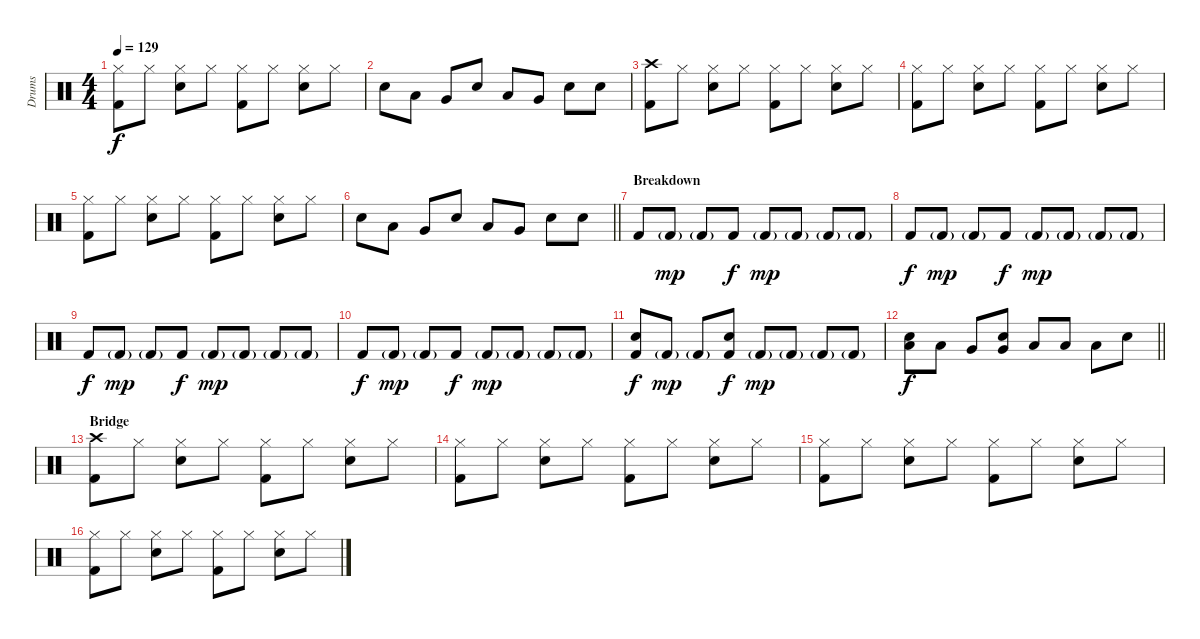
\track ("Drums" "Drums") {instrument percussion}
\staff {score}
\articulation defaults
\ts (4 4)
\tempo 129
\clef neutral
\ks c
("Hi-Hat (closed)" "Kick (hit) 2").8{dy f} "Hi-Hat (closed)".8 ("Hi-Hat (closed)" "Snare (hit) 2").8 "Hi-Hat (closed)".8 ("Hi-Hat (closed)" "Kick (hit) 2").8 "Hi-Hat (closed)".8 ("Hi-Hat (closed)" "Snare (hit) 2").8 "Hi-Hat (closed)".8 |
"Snare (hit) 2".8 "Low Tom (hit)".8 "Very Low Tom (hit)".8 "Snare (hit) 2".8 "Low Tom (hit)".8 "Very Low Tom (hit)".8 "Snare (hit) 2".8 "Snare (hit) 2".8 |
("Crash high (hit)" "Kick (hit) 2").8 "Hi-Hat (closed)".8 ("Hi-Hat (closed)" "Snare (hit) 2").8 "Hi-Hat (closed)".8 ("Hi-Hat (closed)" "Kick (hit) 2").8 "Hi-Hat (closed)".8 ("Hi-Hat (closed)" "Snare (hit) 2").8 "Hi-Hat (closed)".8 |
("Hi-Hat (closed)" "Kick (hit) 2").8 "Hi-Hat (closed)".8 ("Hi-Hat (closed)" "Snare (hit) 2").8 "Hi-Hat (closed)".8 ("Hi-Hat (closed)" "Kick (hit) 2").8 "Hi-Hat (closed)".8 ("Hi-Hat (closed)" "Snare (hit) 2").8 "Hi-Hat (closed)".8 |
("Hi-Hat (closed)" "Kick (hit) 2").8 "Hi-Hat (closed)".8 ("Hi-Hat (closed)" "Snare (hit) 2").8 "Hi-Hat (closed)".8 ("Hi-Hat (closed)" "Kick (hit) 2").8 "Hi-Hat (closed)".8 ("Hi-Hat (closed)" "Snare (hit) 2").8 "Hi-Hat (closed)".8 |
\barLineRight lightlight "Snare (hit) 2".8 "Low Tom (hit)".8 "Very Low Tom (hit)".8 "Snare (hit) 2".8 "Low Tom (hit)".8 "Very Low Tom (hit)".8 "Snare (hit) 2".8 "Snare (hit) 2".8
|
\section ("" "Breakdown")
"Kick (hit) 2".8 "Kick (hit) 2"{g}.8{dy mp} "Kick (hit) 2"{g}.8 "Kick (hit) 2".8{dy f} "Kick (hit) 2"{g}.8{dy mp} "Kick (hit) 2"{g}.8 "Kick (hit) 2"{g}.8 "Kick (hit) 2"{g}.8 |
"Kick (hit) 2".8{dy f} "Kick (hit) 2"{g}.8{dy mp} "Kick (hit) 2"{g}.8 "Kick (hit) 2".8{dy f} "Kick (hit) 2"{g}.8{dy mp} "Kick (hit) 2"{g}.8 "Kick (hit) 2"{g}.8 "Kick (hit) 2"{g}.8 |
"Kick (hit) 2".8{dy f} "Kick (hit) 2"{g}.8{dy mp} "Kick (hit) 2"{g}.8 "Kick (hit) 2".8{dy f} "Kick (hit) 2"{g}.8{dy mp} "Kick (hit) 2"{g}.8 "Kick (hit) 2"{g}.8 "Kick (hit) 2"{g}.8 |
"Kick (hit) 2".8{dy f} "Kick (hit) 2"{g}.8{dy mp} "Kick (hit) 2"{g}.8 "Kick (hit) 2".8{dy f} "Kick (hit) 2"{g}.8{dy mp} "Kick (hit) 2"{g}.8 "Kick (hit) 2"{g}.8 "Kick (hit) 2"{g}.8 |
("Snare (hit) 2" "Kick (hit) 2").8{dy f} "Kick (hit) 2"{g}.8{dy mp} "Kick (hit) 2"{g}.8 ("Snare (hit) 2" "Kick (hit) 2").8{dy f} "Kick (hit) 2"{g}.8{dy mp} "Kick (hit) 2"{g}.8 "Kick (hit) 2"{g}.8 "Kick (hit) 2"{g}.8 |
\barLineRight lightlight
("Low Tom (hit)" "Snare (hit) 2").8{dy f} "Low Tom (hit)".8 "Very Low Tom (hit)".8 ("Very Low Tom (hit)" "Snare (hit) 2").8 "Low Floor Tom (hit)".8 "Low Floor Tom (hit)".8 "Low Floor Tom (hit)".8 "Snare (hit) 2".8 |
\section ("" "Bridge")
("Crash high (hit)" "Kick (hit) 2").8 "Hi-Hat (closed)".8 ("Hi-Hat (closed)" "Snare (hit) 2").8 "Hi-Hat (closed)".8 ("Hi-Hat (closed)" "Kick (hit) 2").8 "Hi-Hat (closed)".8 ("Hi-Hat (closed)" "Snare (hit) 2").8 "Hi-Hat (closed)".8 |
("Hi-Hat (closed)" "Kick (hit) 2").8 "Hi-Hat (closed)".8 ("Hi-Hat (closed)" "Snare (hit) 2").8 "Hi-Hat (closed)".8 ("Hi-Hat (closed)" "Kick (hit) 2").8 "Hi-Hat (closed)".8 ("Hi-Hat (closed)" "Snare (hit) 2").8 "Hi-Hat (closed)".8 |
("Hi-Hat (closed)" "Kick (hit) 2").8 "Hi-Hat (closed)".8 ("Hi-Hat (closed)" "Snare (hit) 2").8 "Hi-Hat (closed)".8 ("Hi-Hat (closed)" "Kick (hit) 2").8 "Hi-Hat (closed)".8 ("Hi-Hat (closed)" "Snare (hit) 2").8 "Hi-Hat (closed)".8 |
("Hi-Hat (closed)" "Kick (hit) 2").8 "Hi-Hat (closed)".8 ("Hi-Hat (closed)" "Snare (hit) 2").8 "Hi-Hat (closed)".8 ("Hi-Hat (closed)" "Kick (hit) 2").8 "Hi-Hat (closed)".8 ("Hi-Hat (closed)" "Snare (hit) 2").8 "Hi-Hat (closed)".8
